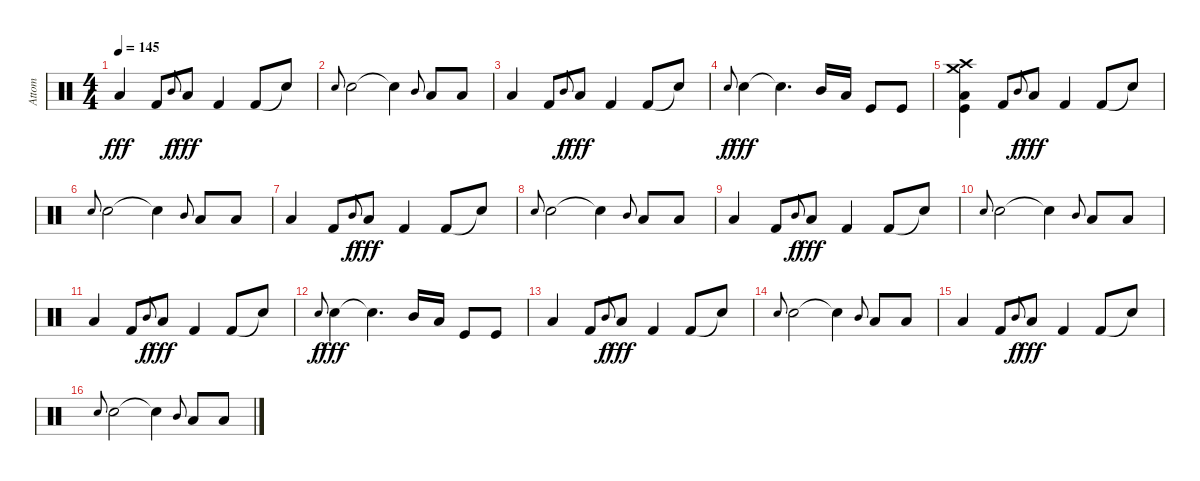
\track ("Attom" "Attom") {instrument percussion}
\staff {score}
\articulation defaults
\ts (4 4)
\tempo 145
\clef neutral
\ks c "Low Floor Tom (hit)".4{dy fff} "Kick (hit) 2".8 "Mid Tom (hit)".8{gr onbeat dy f} "Low Floor Tom (hit)".8{dy fff} "Kick (hit) 2".4 "Kick (hit) 2".8 "Snare (hit)"{t}.8
|
"Snare (hit) 2".8{gr onbeat} "Snare (hit) 2".2 "Snare (hit)"{t}.4 "Mid Tom (hit)".8{gr onbeat} "Low Floor Tom (hit)".8 "Low Floor Tom (hit)".8 |
"Low Floor Tom (hit)".4 "Kick (hit) 2".8 "Mid Tom (hit)".8{gr onbeat dy f} "Low Floor Tom (hit)".8{dy fff} "Kick (hit) 2".4 "Kick (hit) 2".8 "Snare (hit)"{t}.8 |
"Snare (hit) 2".8{gr onbeat dy f} "Snare (hit) 2".4{dy fff} "Snare (hit)"{t}.4{d} "Mid Tom (hit)".16 "Low Floor Tom (hit)".16 "Kick (hit)".8 "Kick (hit)".8 |
("Low Floor Tom (hit)" "Crash medium (hit)" "Crash high (hit)" "Kick (hit)").4 "Kick (hit) 2".8 "Mid Tom (hit)".8{gr onbeat dy f} "Low Floor Tom (hit)".8{dy fff} "Kick (hit) 2".4 "Kick (hit) 2".8 "Snare (hit)"{t}.8 |
"Snare (hit) 2".8{gr onbeat} "Snare (hit) 2".2 "Snare (hit)"{t}.4 "Mid Tom (hit)".8{gr onbeat} "Low Floor Tom (hit)".8 "Low Floor Tom (hit)".8 |
"Low Floor Tom (hit)".4 "Kick (hit) 2".8 "Mid Tom (hit)".8{gr onbeat dy f} "Low Floor Tom (hit)".8{dy fff} "Kick (hit) 2".4 "Kick (hit) 2".8 "Snare (hit)"{t}.8 |
"Snare (hit) 2".8{gr onbeat} "Snare (hit) 2".2 "Snare (hit)"{t}.4 "Mid Tom (hit)".8{gr onbeat} "Low Floor Tom (hit)".8 "Low Floor Tom (hit)".8 |
"Low Floor Tom (hit)".4 "Kick (hit) 2".8 "Mid Tom (hit)".8{gr onbeat dy f} "Low Floor Tom (hit)".8{dy fff} "Kick (hit) 2".4 "Kick (hit) 2".8 "Snare (hit)"{t}.8 |
"Snare (hit) 2".8{gr onbeat} "Snare (hit) 2".2 "Snare (hit)"{t}.4 "Mid Tom (hit)".8{gr onbeat} "Low Floor Tom (hit)".8 "Low Floor Tom (hit)".8 |
"Low Floor Tom (hit)".4 "Kick (hit) 2".8 "Mid Tom (hit)".8{gr onbeat dy f} "Low Floor Tom (hit)".8{dy fff} "Kick (hit) 2".4 "Kick (hit) 2".8 "Snare (hit)"{t}.8 |
"Snare (hit) 2".8{gr onbeat dy f} "Snare (hit) 2".4{dy fff} "Snare (hit)"{t}.4{d} "Mid Tom (hit)".16 "Low Floor Tom (hit)".16 "Kick (hit)".8 "Kick (hit)".8 |
"Low Floor Tom (hit)".4 "Kick (hit) 2".8 "Mid Tom (hit)".8{gr onbeat dy f} "Low Floor Tom (hit)".8{dy fff} "Kick (hit) 2".4 "Kick (hit) 2".8 "Snare (hit)"{t}.8 |
"Snare (hit) 2".8{gr onbeat} "Snare (hit) 2".2 "Snare (hit)"{t}.4 "Mid Tom (hit)".8{gr onbeat} "Low Floor Tom (hit)".8 "Low Floor Tom (hit)".8 |
"Low Floor Tom (hit)".4 "Kick (hit) 2".8 "Mid Tom (hit)".8{gr onbeat dy f} "Low Floor Tom (hit)".8{dy fff} "Kick (hit) 2".4 "Kick (hit) 2".8 "Snare (hit)"{t}.8 |
"Snare (hit) 2".8{gr onbeat} "Snare (hit) 2".2 "Snare (hit)"{t}.4 "Mid Tom (hit)".8{gr onbeat} "Low Floor Tom (hit)".8 "Low Floor Tom (hit)".8
